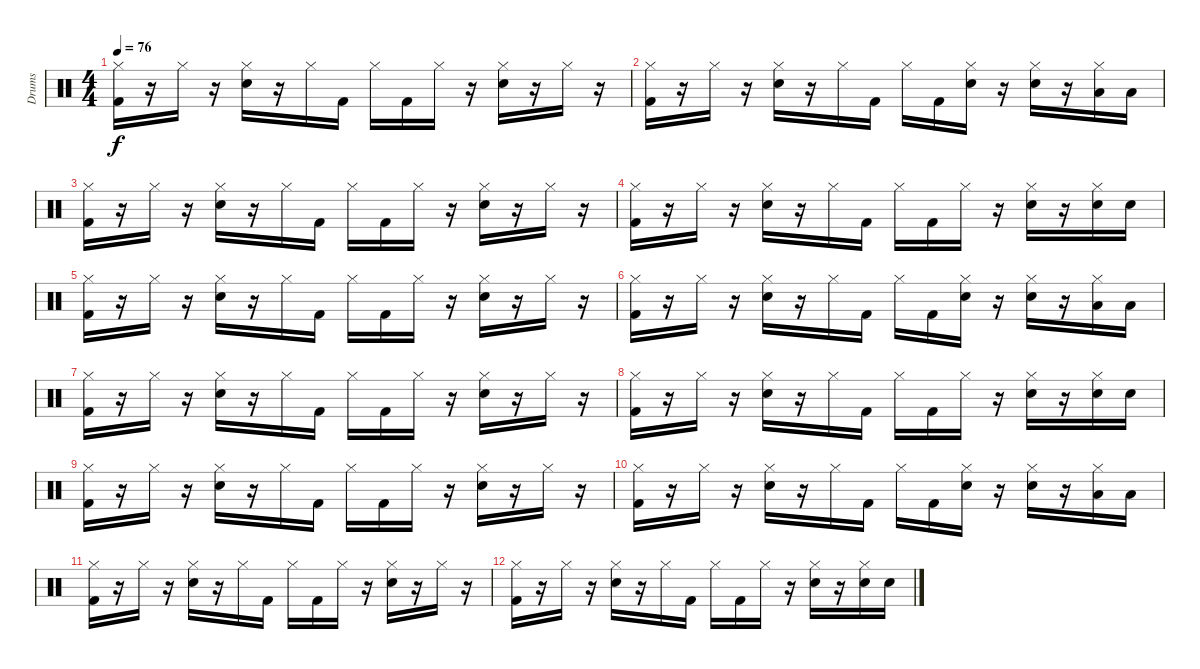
\track ("Drums" "Drums") {instrument percussion}
\staff {score}
\articulation defaults
\ts (4 4)
\tempo 76
\clef neutral
\ks c
("Kick (hit) 2" "Hi-Hat (closed)").16{dy f} r.16 "Hi-Hat (closed)".16 r.16 ("Snare (hit) 2" "Hi-Hat (closed)").16 r.16 "Hi-Hat (closed)".16 "Kick (hit) 2".16 "Hi-Hat (closed)".16 "Kick (hit) 2".16 "Hi-Hat (closed)".16 r.16 ("Snare (hit) 2" "Hi-Hat (closed)").16 r.16 "Hi-Hat (closed)".16 r.16 |
("Kick (hit) 2" "Hi-Hat (closed)").16 r.16 "Hi-Hat (closed)".16 r.16 ("Snare (hit) 2" "Hi-Hat (closed)").16 r.16 "Hi-Hat (closed)".16 "Kick (hit) 2".16 "Hi-Hat (closed)".16 "Kick (hit) 2".16 ("Snare (hit) 2" "Hi-Hat (closed)").16 r.16 ("Snare (hit) 2" "Hi-Hat (closed)").16 r.16 ("Low Tom (hit)" "Hi-Hat (closed)").16 "Low Tom (hit)".16 |
("Kick (hit) 2" "Hi-Hat (closed)").16 r.16 "Hi-Hat (closed)".16 r.16 ("Snare (hit) 2" "Hi-Hat (closed)").16 r.16 "Hi-Hat (closed)".16 "Kick (hit) 2".16 "Hi-Hat (closed)".16 "Kick (hit) 2".16 "Hi-Hat (closed)".16 r.16 ("Snare (hit) 2" "Hi-Hat (closed)").16 r.16 "Hi-Hat (closed)".16 r.16 |
("Kick (hit) 2" "Hi-Hat (closed)").16 r.16 "Hi-Hat (closed)".16 r.16 ("Snare (hit) 2" "Hi-Hat (closed)").16 r.16 "Hi-Hat (closed)".16 "Kick (hit) 2".16 "Hi-Hat (closed)".16 "Kick (hit) 2".16 "Hi-Hat (closed)".16 r.16 ("Snare (hit) 2" "Hi-Hat (closed)").16 r.16 ("Snare (hit) 2" "Hi-Hat (closed)").16 "Snare (hit) 2".16 |
("Kick (hit) 2" "Hi-Hat (closed)").16 r.16 "Hi-Hat (closed)".16 r.16 ("Snare (hit) 2" "Hi-Hat (closed)").16 r.16 "Hi-Hat (closed)".16 "Kick (hit) 2".16 "Hi-Hat (closed)".16 "Kick (hit) 2".16 "Hi-Hat (closed)".16 r.16 ("Snare (hit) 2" "Hi-Hat (closed)").16 r.16 "Hi-Hat (closed)".16 r.16 |
("Kick (hit) 2" "Hi-Hat (closed)").16 r.16 "Hi-Hat (closed)".16 r.16 ("Snare (hit) 2" "Hi-Hat (closed)").16 r.16 "Hi-Hat (closed)".16 "Kick (hit) 2".16 "Hi-Hat (closed)".16 "Kick (hit) 2".16 ("Snare (hit) 2" "Hi-Hat (closed)").16 r.16 ("Snare (hit) 2" "Hi-Hat (closed)").16 r.16 ("Low Tom (hit)" "Hi-Hat (closed)").16 "Low Tom (hit)".16 |
("Kick (hit) 2" "Hi-Hat (closed)").16 r.16 "Hi-Hat (closed)".16 r.16 ("Snare (hit) 2" "Hi-Hat (closed)").16 r.16 "Hi-Hat (closed)".16 "Kick (hit) 2".16 "Hi-Hat (closed)".16 "Kick (hit) 2".16 "Hi-Hat (closed)".16 r.16 ("Snare (hit) 2" "Hi-Hat (closed)").16 r.16 "Hi-Hat (closed)".16 r.16 |
("Kick (hit) 2" "Hi-Hat (closed)").16 r.16 "Hi-Hat (closed)".16 r.16 ("Snare (hit) 2" "Hi-Hat (closed)").16 r.16 "Hi-Hat (closed)".16 "Kick (hit) 2".16 "Hi-Hat (closed)".16 "Kick (hit) 2".16 "Hi-Hat (closed)".16 r.16 ("Snare (hit) 2" "Hi-Hat (closed)").16 r.16 ("Snare (hit) 2" "Hi-Hat (closed)").16 "Snare (hit) 2".16 |
("Kick (hit) 2" "Hi-Hat (closed)").16 r.16 "Hi-Hat (closed)".16 r.16 ("Snare (hit) 2" "Hi-Hat (closed)").16 r.16 "Hi-Hat (closed)".16 "Kick (hit) 2".16 "Hi-Hat (closed)".16 "Kick (hit) 2".16 "Hi-Hat (closed)".16 r.16 ("Snare (hit) 2" "Hi-Hat (closed)").16 r.16 "Hi-Hat (closed)".16 r.16 |
("Kick (hit) 2" "Hi-Hat (closed)").16 r.16 "Hi-Hat (closed)".16 r.16 ("Snare (hit) 2" "Hi-Hat (closed)").16 r.16 "Hi-Hat (closed)".16 "Kick (hit) 2".16 "Hi-Hat (closed)".16 "Kick (hit) 2".16 ("Snare (hit) 2" "Hi-Hat (closed)").16 r.16 ("Snare (hit) 2" "Hi-Hat (closed)").16 r.16 ("Low Tom (hit)" "Hi-Hat (closed)").16 "Low Tom (hit)".16 |
("Kick (hit) 2" "Hi-Hat (closed)").16 r.16 "Hi-Hat (closed)".16 r.16 ("Snare (hit) 2" "Hi-Hat (closed)").16 r.16 "Hi-Hat (closed)".16 "Kick (hit) 2".16 "Hi-Hat (closed)".16 "Kick (hit) 2".16 "Hi-Hat (closed)".16 r.16 ("Snare (hit) 2" "Hi-Hat (closed)").16 r.16 "Hi-Hat (closed)".16 r.16 |
("Kick (hit) 2" "Hi-Hat (closed)").16 r.16 "Hi-Hat (closed)".16 r.16 ("Snare (hit) 2" "Hi-Hat (closed)").16 r.16 "Hi-Hat (closed)".16 "Kick (hit) 2".16 "Hi-Hat (closed)".16 "Kick (hit) 2".16 "Hi-Hat (closed)".16 r.16 ("Snare (hit) 2" "Hi-Hat (closed)").16 r.16 ("Snare (hit) 2" "Hi-Hat (closed)").16 "Snare (hit) 2".16
